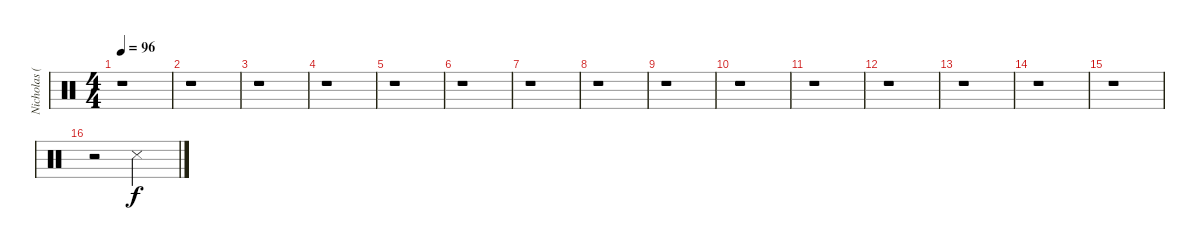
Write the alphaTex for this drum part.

\track ("Nicholas (Drums)" "Nicholas (") {instrument percussion}
\staff {score}
\articulation defaults
\ts (4 4)
\section ("" "")
\tempo 96
\clef neutral
\ks c
r.1{dy f volume 15} |
r.1 |
r.1 |
r.1 |
r.1 |
r.1 |
r.1 |
r.1 |
r.1 |
r.1 |
r.1 |
r.1 |
r.1 |
r.1 |
r.1 |
r.2 "Metronome (hit)".2
